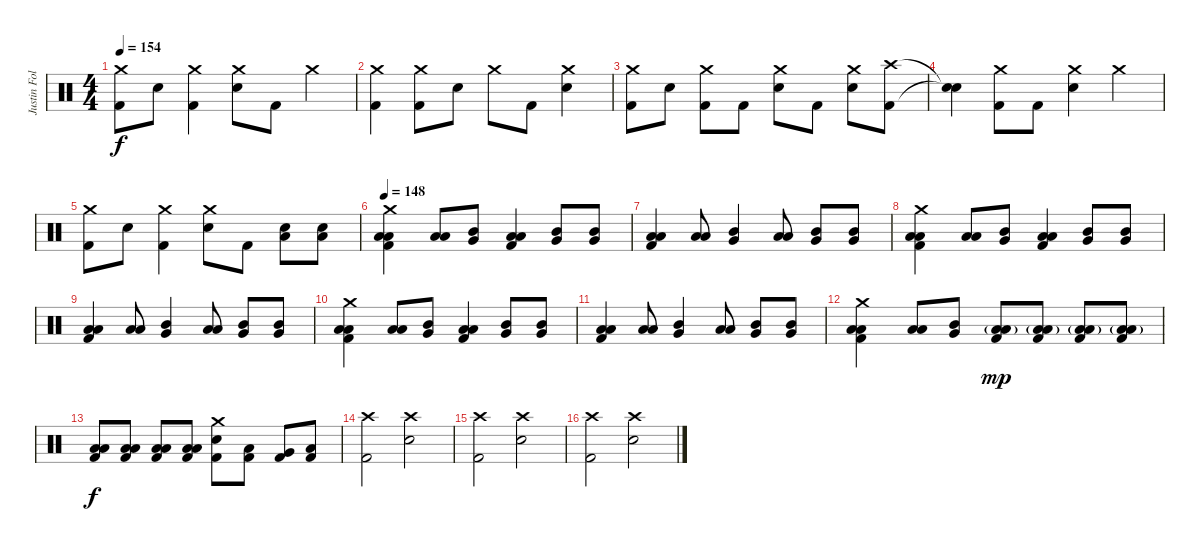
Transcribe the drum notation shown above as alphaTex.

\track ("Justin Foley" "Justin Fol") {instrument percussion}
\staff {score}
\articulation defaults
\ts (4 4)
\tempo 154
\clef neutral
\ks c
("Crash medium (hit)" "Kick (hit) 2").8{dy f} "Electric Snare (hit)".8 ("Crash medium (hit)" "Kick (hit) 2").4 ("Crash medium (hit)" "Electric Snare (hit)").8 "Kick (hit) 2".8 "Crash medium (hit)".4 |
("Crash medium (hit)" "Kick (hit) 2").4 ("Crash medium (hit)" "Kick (hit) 2").8 "Electric Snare (hit)".8 "Crash medium (hit)".8 "Kick (hit) 2".8 ("Crash medium (hit)" "Electric Snare (hit)").4 |
("Crash medium (hit)" "Kick (hit) 2").8 "Electric Snare (hit)".8 ("Crash medium (hit)" "Kick (hit) 2").8 "Kick (hit) 2".8 ("Crash medium (hit)" "Electric Snare (hit)").8 "Kick (hit) 2".8 ("Crash medium (hit)" "Electric Snare (hit)").8 ("Crash high (hit)" "Kick (hit) 2").8 |
("Snare (hit)"{t} "Snare (hit)"{t}).4 ("Crash medium (hit)" "Kick (hit) 2").8 "Kick (hit) 2".8 ("Crash medium (hit)" "Electric Snare (hit)").4 "Crash medium (hit)".4 |
("Crash medium (hit)" "Kick (hit) 2").8 "Electric Snare (hit)".8 ("Crash medium (hit)" "Kick (hit) 2").4 ("Crash medium (hit)" "Electric Snare (hit)").8 "Kick (hit) 2".8 ("Electric Snare (hit)" "Low Floor Tom (hit)").8 ("Electric Snare (hit)" "Low Floor Tom (hit)").8 |
\tempo 148
("Crash medium (hit)" "Low Tom (hit)" "Low Floor Tom (hit)" "Kick (hit) 2").4 ("Low Tom (hit)" "Low Floor Tom (hit)").8 ("Mid Tom (hit)" "Very Low Tom (hit)").8 ("Low Tom (hit)" "Low Floor Tom (hit)" "Kick (hit) 2").4 ("Mid Tom (hit)" "Very Low Tom (hit)").8 ("Mid Tom (hit)" "Very Low Tom (hit)").8 |
("Low Tom (hit)" "Low Floor Tom (hit)" "Kick (hit) 2").4 ("Low Tom (hit)" "Low Floor Tom (hit)").8 ("Mid Tom (hit)" "Very Low Tom (hit)").4 ("Low Tom (hit)" "Low Floor Tom (hit)").8 ("Mid Tom (hit)" "Very Low Tom (hit)").8 ("Mid Tom (hit)" "Very Low Tom (hit)").8 |
("Crash medium (hit)" "Low Tom (hit)" "Low Floor Tom (hit)" "Kick (hit) 2").4 ("Low Tom (hit)" "Low Floor Tom (hit)").8 ("Mid Tom (hit)" "Very Low Tom (hit)").8 ("Low Tom (hit)" "Low Floor Tom (hit)" "Kick (hit) 2").4 ("Mid Tom (hit)" "Very Low Tom (hit)").8 ("Mid Tom (hit)" "Very Low Tom (hit)").8 |
("Low Tom (hit)" "Low Floor Tom (hit)" "Kick (hit) 2").4 ("Low Tom (hit)" "Low Floor Tom (hit)").8 ("Mid Tom (hit)" "Very Low Tom (hit)").4 ("Low Tom (hit)" "Low Floor Tom (hit)").8 ("Mid Tom (hit)" "Very Low Tom (hit)").8 ("Mid Tom (hit)" "Very Low Tom (hit)").8 |
("Crash medium (hit)" "Low Tom (hit)" "Low Floor Tom (hit)" "Kick (hit) 2").4 ("Low Tom (hit)" "Low Floor Tom (hit)").8 ("Mid Tom (hit)" "Very Low Tom (hit)").8 ("Low Tom (hit)" "Low Floor Tom (hit)" "Kick (hit) 2").4 ("Mid Tom (hit)" "Very Low Tom (hit)").8 ("Mid Tom (hit)" "Very Low Tom (hit)").8 |
("Low Tom (hit)" "Low Floor Tom (hit)" "Kick (hit) 2").4 ("Low Tom (hit)" "Low Floor Tom (hit)").8 ("Mid Tom (hit)" "Very Low Tom (hit)").4 ("Low Tom (hit)" "Low Floor Tom (hit)").8 ("Mid Tom (hit)" "Very Low Tom (hit)").8 ("Mid Tom (hit)" "Very Low Tom (hit)").8 |
("Crash medium (hit)" "Low Tom (hit)" "Low Floor Tom (hit)" "Kick (hit) 2").4 ("Low Tom (hit)" "Low Floor Tom (hit)").8 ("Mid Tom (hit)" "Very Low Tom (hit)").8 ("Low Tom (hit)"{g} "Low Floor Tom (hit)"{g} "Kick (hit) 2").8{dy mp} ("Low Tom (hit)"{g} "Low Floor Tom (hit)"{g} "Kick (hit) 2").8 ("Low Tom (hit)"{g} "Low Floor Tom (hit)"{g} "Kick (hit) 2").8 ("Low Tom (hit)"{g} "Low Floor Tom (hit)"{g} "Kick (hit) 2").8 |
("Low Tom (hit)" "Low Floor Tom (hit)" "Kick (hit) 2").8{dy f} ("Low Tom (hit)" "Low Floor Tom (hit)" "Kick (hit) 2").8 ("Low Tom (hit)" "Low Floor Tom (hit)" "Kick (hit) 2").8 ("Low Tom (hit)" "Low Floor Tom (hit)" "Kick (hit) 2").8 ("Crash medium (hit)" "Electric Snare (hit)" "Kick (hit) 2").8 ("Low Tom (hit)" "Kick (hit) 2").8 ("Very Low Tom (hit)" "Kick (hit) 2").8 ("Low Floor Tom (hit)" "Kick (hit) 2").8 |
("Crash high (hit)" "Kick (hit) 2").2 ("Crash high (hit)" "Electric Snare (hit)").2 |
("Crash high (hit)" "Kick (hit) 2").2 ("Crash high (hit)" "Electric Snare (hit)").2 |
("Crash high (hit)" "Kick (hit) 2").2 ("Crash high (hit)" "Electric Snare (hit)").2
